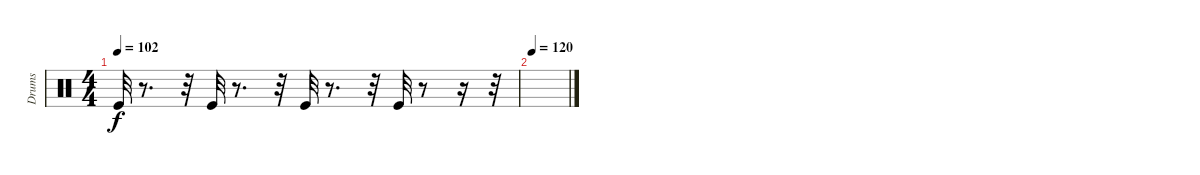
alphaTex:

\track ("Drums" "Drums") {instrument percussion}
\staff {score}
\articulation defaults
\ts (4 4)
\tempo 102
\clef neutral
\ks c "Kick (hit)".32{dy f}
r.8{d} r.32 "Kick (hit)".32 r.8{d} r.32 "Kick (hit)".32 r.8{d} r.32 "Kick (hit)".32 r.8 r.16 r.32 |
\tempo 120
